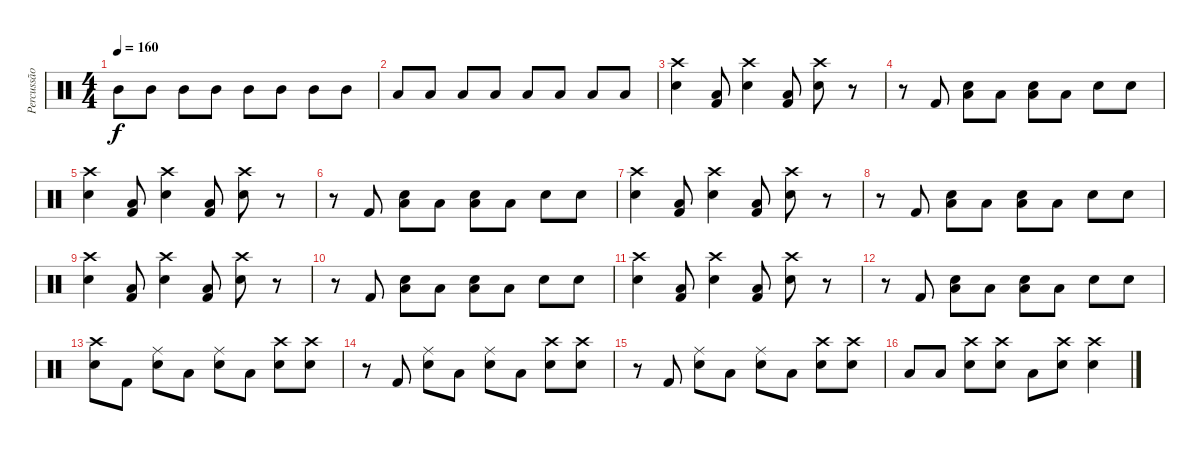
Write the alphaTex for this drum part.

\track ("Percussão" "Percussão") {instrument percussion}
\staff {score}
\articulation defaults
\ts (4 4)
\tempo 160
\clef neutral
\ks c "Mid Tom (hit)".8{dy f} "Mid Tom (hit)".8 "Mid Tom (hit)".8 "Mid Tom (hit)".8 "Mid Tom (hit)".8 "Mid Tom (hit)".8 "Mid Tom (hit)".8 "Mid Tom (hit)".8
|
"Low Floor Tom (hit)".8 "Low Floor Tom (hit)".8 "Low Floor Tom (hit)".8 "Low Floor Tom (hit)".8 "Low Floor Tom (hit)".8 "Low Floor Tom (hit)".8 "Low Floor Tom (hit)".8 "Low Floor Tom (hit)".8 |
("Crash high (hit)" "Snare (hit) 2").4 ("Low Floor Tom (hit)" "Kick (hit) 2").8 ("Crash high (hit)" "Snare (hit) 2").4 ("Low Floor Tom (hit)" "Kick (hit) 2").8 ("Crash high (hit)" "Snare (hit) 2").8 r.8 |
r.8 "Kick (hit) 2".8 ("Low Tom (hit)" "Snare (hit) 2").8 "Low Tom (hit)".8 ("Low Floor Tom (hit)" "Snare (hit) 2").8 "Low Floor Tom (hit)".8 "Snare (hit) 2".8 "Snare (hit) 2".8 |
("Crash high (hit)" "Snare (hit) 2").4 ("Low Floor Tom (hit)" "Kick (hit) 2").8 ("Crash high (hit)" "Snare (hit) 2").4 ("Low Floor Tom (hit)" "Kick (hit) 2").8 ("Crash high (hit)" "Snare (hit) 2").8 r.8 |
r.8 "Kick (hit) 2".8 ("Low Tom (hit)" "Snare (hit) 2").8 "Low Tom (hit)".8 ("Low Floor Tom (hit)" "Snare (hit) 2").8 "Low Floor Tom (hit)".8 "Snare (hit) 2".8 "Snare (hit) 2".8 |
("Crash high (hit)" "Snare (hit) 2").4 ("Low Floor Tom (hit)" "Kick (hit) 2").8 ("Crash high (hit)" "Snare (hit) 2").4 ("Low Floor Tom (hit)" "Kick (hit) 2").8 ("Crash high (hit)" "Snare (hit) 2").8 r.8 |
r.8 "Kick (hit) 2".8 ("Low Tom (hit)" "Snare (hit) 2").8 "Low Tom (hit)".8 ("Low Floor Tom (hit)" "Snare (hit) 2").8 "Low Floor Tom (hit)".8 "Snare (hit) 2".8 "Snare (hit) 2".8 |
("Crash high (hit)" "Snare (hit) 2").4 ("Low Floor Tom (hit)" "Kick (hit) 2").8 ("Crash high (hit)" "Snare (hit) 2").4 ("Low Floor Tom (hit)" "Kick (hit) 2").8 ("Crash high (hit)" "Snare (hit) 2").8 r.8 |
r.8 "Kick (hit) 2".8 ("Low Tom (hit)" "Snare (hit) 2").8 "Low Tom (hit)".8 ("Low Floor Tom (hit)" "Snare (hit) 2").8 "Low Floor Tom (hit)".8 "Snare (hit) 2".8 "Snare (hit) 2".8 |
("Crash high (hit)" "Snare (hit) 2").4 ("Low Floor Tom (hit)" "Kick (hit) 2").8 ("Crash high (hit)" "Snare (hit) 2").4 ("Low Floor Tom (hit)" "Kick (hit) 2").8 ("Crash high (hit)" "Snare (hit) 2").8 r.8 |
r.8 "Kick (hit) 2".8 ("Low Tom (hit)" "Snare (hit) 2").8 "Low Tom (hit)".8 ("Low Floor Tom (hit)" "Snare (hit) 2").8 "Low Floor Tom (hit)".8 "Snare (hit) 2".8 "Snare (hit) 2".8 |
("Crash high (hit)" "Snare (hit) 2").8 "Kick (hit) 2".8 ("Ride (middle)" "Snare (hit) 2").8 "Low Floor Tom (hit)".8 ("Ride (middle)" "Snare (hit) 2").8 "Low Floor Tom (hit)".8 ("Crash high (hit)" "Snare (hit) 2").8 ("Crash high (hit)" "Snare (hit) 2").8 |
r.8 "Kick (hit) 2".8 ("Ride (middle)" "Snare (hit) 2").8 "Low Floor Tom (hit)".8 ("Ride (middle)" "Snare (hit) 2").8 "Low Floor Tom (hit)".8 ("Crash high (hit)" "Snare (hit) 2").8 ("Crash high (hit)" "Snare (hit) 2").8 |
r.8 "Kick (hit) 2".8 ("Ride (middle)" "Snare (hit) 2").8 "Low Floor Tom (hit)".8 ("Ride (middle)" "Snare (hit) 2").8 "Low Floor Tom (hit)".8 ("Crash high (hit)" "Snare (hit) 2").8 ("Crash high (hit)" "Snare (hit) 2").8 |
"Low Floor Tom (hit)".8 "Low Floor Tom (hit)".8 ("Crash high (hit)" "Snare (hit) 2").8 ("Crash high (hit)" "Snare (hit) 2").8 "Low Floor Tom (hit)".8 ("Crash high (hit)" "Snare (hit) 2").8 ("Crash high (hit)" "Snare (hit) 2").4
